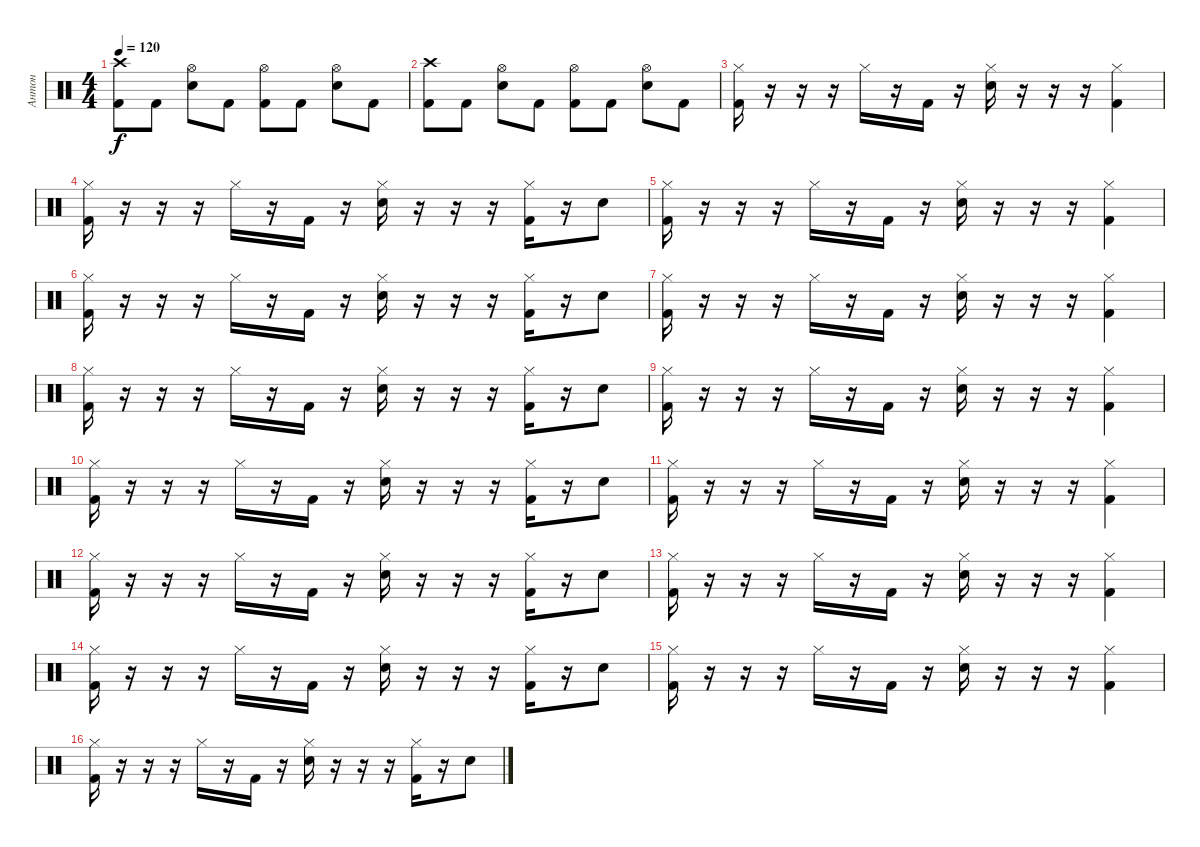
\track ("Антон" "Антон") {instrument percussion}
\staff {score}
\articulation defaults
\ts (4 4)
\tempo 120
\clef neutral
\ks c
("Crash high (hit)" "Kick (hit) 2").8{dy f} "Kick (hit) 2".8 ("Hi-Hat (open)" "Electric Snare (hit)").8 "Kick (hit) 2".8 ("Hi-Hat (open)" "Kick (hit) 2").8 "Kick (hit) 2".8 ("Hi-Hat (open)" "Electric Snare (hit)").8 "Kick (hit) 2".8 |
("Crash high (hit)" "Kick (hit) 2").8 "Kick (hit) 2".8 ("Hi-Hat (open)" "Electric Snare (hit)").8 "Kick (hit) 2".8 ("Hi-Hat (open)" "Kick (hit) 2").8 "Kick (hit) 2".8 ("Hi-Hat (open)" "Electric Snare (hit)").8 "Kick (hit) 2".8 |
("Hi-Hat (closed)" "Kick (hit) 2").16 r.16 r.16 r.16 "Hi-Hat (closed)".16 r.16 "Kick (hit) 2".16 r.16 ("Hi-Hat (closed)" "Electric Snare (hit)").16 r.16 r.16 r.16 ("Hi-Hat (closed)" "Kick (hit) 2").4 |
("Hi-Hat (closed)" "Kick (hit) 2").16 r.16 r.16 r.16 "Hi-Hat (closed)".16 r.16 "Kick (hit) 2".16 r.16 ("Hi-Hat (closed)" "Electric Snare (hit)").16 r.16 r.16 r.16 ("Hi-Hat (closed)" "Kick (hit) 2").16 r.16 "Electric Snare (hit)".8 |
("Hi-Hat (closed)" "Kick (hit) 2").16 r.16 r.16 r.16 "Hi-Hat (closed)".16 r.16 "Kick (hit) 2".16 r.16 ("Hi-Hat (closed)" "Electric Snare (hit)").16 r.16 r.16 r.16 ("Hi-Hat (closed)" "Kick (hit) 2").4 |
("Hi-Hat (closed)" "Kick (hit) 2").16 r.16 r.16 r.16 "Hi-Hat (closed)".16 r.16 "Kick (hit) 2".16 r.16 ("Hi-Hat (closed)" "Electric Snare (hit)").16 r.16 r.16 r.16 ("Hi-Hat (closed)" "Kick (hit) 2").16 r.16 "Electric Snare (hit)".8 |
("Hi-Hat (closed)" "Kick (hit) 2").16 r.16 r.16 r.16 "Hi-Hat (closed)".16 r.16 "Kick (hit) 2".16 r.16 ("Hi-Hat (closed)" "Electric Snare (hit)").16 r.16 r.16 r.16 ("Hi-Hat (closed)" "Kick (hit) 2").4 |
("Hi-Hat (closed)" "Kick (hit) 2").16 r.16 r.16 r.16 "Hi-Hat (closed)".16 r.16 "Kick (hit) 2".16 r.16 ("Hi-Hat (closed)" "Electric Snare (hit)").16 r.16 r.16 r.16 ("Hi-Hat (closed)" "Kick (hit) 2").16 r.16 "Electric Snare (hit)".8 |
("Hi-Hat (closed)" "Kick (hit) 2").16 r.16 r.16 r.16 "Hi-Hat (closed)".16 r.16 "Kick (hit) 2".16 r.16 ("Hi-Hat (closed)" "Electric Snare (hit)").16 r.16 r.16 r.16 ("Hi-Hat (closed)" "Kick (hit) 2").4 |
("Hi-Hat (closed)" "Kick (hit) 2").16 r.16 r.16 r.16 "Hi-Hat (closed)".16 r.16 "Kick (hit) 2".16 r.16 ("Hi-Hat (closed)" "Electric Snare (hit)").16 r.16 r.16 r.16 ("Hi-Hat (closed)" "Kick (hit) 2").16 r.16 "Electric Snare (hit)".8 |
("Hi-Hat (closed)" "Kick (hit) 2").16 r.16 r.16 r.16 "Hi-Hat (closed)".16 r.16 "Kick (hit) 2".16 r.16 ("Hi-Hat (closed)" "Electric Snare (hit)").16 r.16 r.16 r.16 ("Hi-Hat (closed)" "Kick (hit) 2").4 |
("Hi-Hat (closed)" "Kick (hit) 2").16 r.16 r.16 r.16 "Hi-Hat (closed)".16 r.16 "Kick (hit) 2".16 r.16 ("Hi-Hat (closed)" "Electric Snare (hit)").16 r.16 r.16 r.16 ("Hi-Hat (closed)" "Kick (hit) 2").16 r.16 "Electric Snare (hit)".8 |
("Hi-Hat (closed)" "Kick (hit) 2").16 r.16 r.16 r.16 "Hi-Hat (closed)".16 r.16 "Kick (hit) 2".16 r.16 ("Hi-Hat (closed)" "Electric Snare (hit)").16 r.16 r.16 r.16 ("Hi-Hat (closed)" "Kick (hit) 2").4 |
("Hi-Hat (closed)" "Kick (hit) 2").16 r.16 r.16 r.16 "Hi-Hat (closed)".16 r.16 "Kick (hit) 2".16 r.16 ("Hi-Hat (closed)" "Electric Snare (hit)").16 r.16 r.16 r.16 ("Hi-Hat (closed)" "Kick (hit) 2").16 r.16 "Electric Snare (hit)".8 |
("Hi-Hat (closed)" "Kick (hit) 2").16 r.16 r.16 r.16 "Hi-Hat (closed)".16 r.16 "Kick (hit) 2".16 r.16 ("Hi-Hat (closed)" "Electric Snare (hit)").16 r.16 r.16 r.16 ("Hi-Hat (closed)" "Kick (hit) 2").4 |
("Hi-Hat (closed)" "Kick (hit) 2").16 r.16 r.16 r.16 "Hi-Hat (closed)".16 r.16 "Kick (hit) 2".16 r.16 ("Hi-Hat (closed)" "Electric Snare (hit)").16 r.16 r.16 r.16 ("Hi-Hat (closed)" "Kick (hit) 2").16 r.16 "Electric Snare (hit)".8
